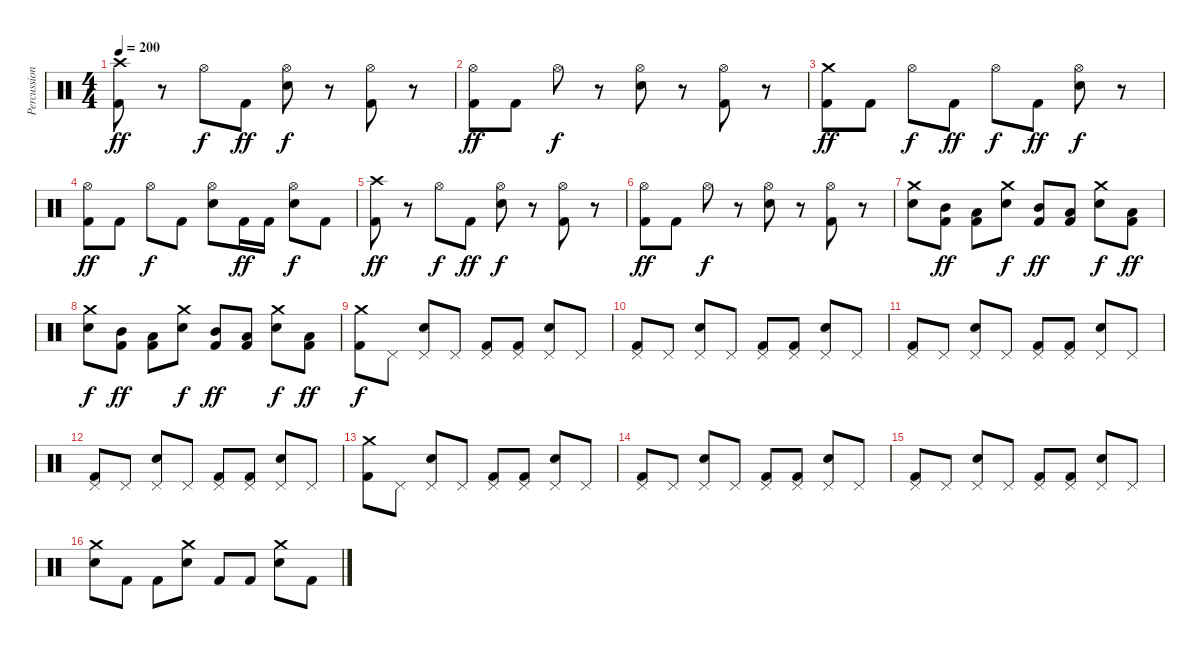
\track ("Percussion" "Percussion") {instrument percussion}
\staff {score}
\articulation defaults
\ts (4 4)
\tempo 200
\clef neutral
\ks c
("Crash high (hit)" "Kick (hit) 2").8{dy ff} r.8 "Hi-Hat (open)".8{dy f} "Kick (hit) 2".8{dy ff} ("Hi-Hat (open)" "Snare (hit) 2").8{dy f} r.8 ("Hi-Hat (open)" "Kick (hit) 2").8 r.8 |
("Hi-Hat (open)" "Kick (hit) 2").8{dy ff} "Kick (hit) 2".8 "Hi-Hat (open)".8{dy f} r.8 ("Hi-Hat (open)" "Snare (hit) 2").8 r.8 ("Hi-Hat (open)" "Kick (hit) 2").8 r.8 |
("Crash medium (hit)" "Kick (hit) 2").8{dy ff} "Kick (hit) 2".8 "Hi-Hat (open)".8{dy f} "Kick (hit) 2".8{dy ff} "Hi-Hat (open)".8{dy f} "Kick (hit) 2".8{dy ff} ("Hi-Hat (open)" "Snare (hit) 2").8{dy f} r.8 |
("Hi-Hat (open)" "Kick (hit) 2").8{dy ff} "Kick (hit) 2".8 "Hi-Hat (open)".8{dy f} "Kick (hit) 2".8 ("Hi-Hat (open)" "Snare (hit) 2").8 "Kick (hit) 2".16{dy ff} "Kick (hit) 2".16 ("Hi-Hat (open)" "Snare (hit) 2").8{dy f} "Kick (hit) 2".8 |
("Crash high (hit)" "Kick (hit) 2").8{dy ff} r.8 "Hi-Hat (open)".8{dy f} "Kick (hit) 2".8{dy ff} ("Hi-Hat (open)" "Snare (hit) 2").8{dy f} r.8 ("Hi-Hat (open)" "Kick (hit) 2").8 r.8 |
("Hi-Hat (open)" "Kick (hit) 2").8{dy ff} "Kick (hit) 2".8 "Hi-Hat (open)".8{dy f} r.8 ("Hi-Hat (open)" "Snare (hit) 2").8 r.8 ("Hi-Hat (open)" "Kick (hit) 2").8 r.8 |
("Crash medium (hit)" "Snare (hit) 2").8 ("Mid Tom (hit)" "Kick (hit) 2").8{dy ff} ("Low Tom (hit)" "Kick (hit) 2").8 ("Crash medium (hit)" "Snare (hit) 2").8{dy f} ("Mid Tom (hit)" "Kick (hit) 2").8{dy ff} ("Low Tom (hit)" "Kick (hit) 2").8 ("Crash medium (hit)" "Snare (hit) 2").8{dy f} ("Low Tom (hit)" "Kick (hit) 2").8{dy ff} |
("Crash medium (hit)" "Snare (hit) 2").8{dy f} ("Mid Tom (hit)" "Kick (hit) 2").8{dy ff} ("Low Tom (hit)" "Kick (hit) 2").8 ("Crash medium (hit)" "Snare (hit) 2").8{dy f} ("Mid Tom (hit)" "Kick (hit) 2").8{dy ff} ("Low Tom (hit)" "Kick (hit) 2").8 ("Crash medium (hit)" "Snare (hit) 2").8{dy f} ("Low Tom (hit)" "Kick (hit) 2").8{dy ff} |
("Crash medium (hit)" "Kick (hit) 2").8{dy f} "Pedal Hi-Hat (hit)".8 ("Pedal Hi-Hat (hit)" "Snare (hit) 2").8 "Pedal Hi-Hat (hit)".8 ("Pedal Hi-Hat (hit)" "Kick (hit) 2").8 ("Pedal Hi-Hat (hit)" "Kick (hit) 2").8 ("Pedal Hi-Hat (hit)" "Snare (hit) 2").8 "Pedal Hi-Hat (hit)".8 |
("Pedal Hi-Hat (hit)" "Kick (hit) 2").8 "Pedal Hi-Hat (hit)".8 ("Pedal Hi-Hat (hit)" "Snare (hit) 2").8 "Pedal Hi-Hat (hit)".8 ("Pedal Hi-Hat (hit)" "Kick (hit) 2").8 ("Pedal Hi-Hat (hit)" "Kick (hit) 2").8 ("Pedal Hi-Hat (hit)" "Snare (hit) 2").8 "Pedal Hi-Hat (hit)".8 |
("Pedal Hi-Hat (hit)" "Kick (hit) 2").8 "Pedal Hi-Hat (hit)".8 ("Pedal Hi-Hat (hit)" "Snare (hit) 2").8 "Pedal Hi-Hat (hit)".8 ("Pedal Hi-Hat (hit)" "Kick (hit) 2").8 ("Pedal Hi-Hat (hit)" "Kick (hit) 2").8 ("Pedal Hi-Hat (hit)" "Snare (hit) 2").8 "Pedal Hi-Hat (hit)".8 |
("Pedal Hi-Hat (hit)" "Kick (hit) 2").8 "Pedal Hi-Hat (hit)".8 ("Pedal Hi-Hat (hit)" "Snare (hit) 2").8 "Pedal Hi-Hat (hit)".8 ("Pedal Hi-Hat (hit)" "Kick (hit) 2").8 ("Pedal Hi-Hat (hit)" "Kick (hit) 2").8 ("Pedal Hi-Hat (hit)" "Snare (hit) 2").8 "Pedal Hi-Hat (hit)".8 |
("Crash medium (hit)" "Kick (hit) 2").8 "Pedal Hi-Hat (hit)".8 ("Pedal Hi-Hat (hit)" "Snare (hit) 2").8 "Pedal Hi-Hat (hit)".8 ("Pedal Hi-Hat (hit)" "Kick (hit) 2").8 ("Pedal Hi-Hat (hit)" "Kick (hit) 2").8 ("Pedal Hi-Hat (hit)" "Snare (hit) 2").8 "Pedal Hi-Hat (hit)".8 |
("Pedal Hi-Hat (hit)" "Kick (hit) 2").8 "Pedal Hi-Hat (hit)".8 ("Pedal Hi-Hat (hit)" "Snare (hit) 2").8 "Pedal Hi-Hat (hit)".8 ("Pedal Hi-Hat (hit)" "Kick (hit) 2").8 ("Pedal Hi-Hat (hit)" "Kick (hit) 2").8 ("Pedal Hi-Hat (hit)" "Snare (hit) 2").8 "Pedal Hi-Hat (hit)".8 |
("Pedal Hi-Hat (hit)" "Kick (hit) 2").8 "Pedal Hi-Hat (hit)".8 ("Pedal Hi-Hat (hit)" "Snare (hit) 2").8 "Pedal Hi-Hat (hit)".8 ("Pedal Hi-Hat (hit)" "Kick (hit) 2").8 ("Pedal Hi-Hat (hit)" "Kick (hit) 2").8 ("Pedal Hi-Hat (hit)" "Snare (hit) 2").8 "Pedal Hi-Hat (hit)".8 |
("Crash medium (hit)" "Snare (hit) 2").8 "Kick (hit) 2".8 "Kick (hit) 2".8 ("Crash medium (hit)" "Snare (hit) 2").8 "Kick (hit) 2".8 "Kick (hit) 2".8 ("Crash medium (hit)" "Snare (hit) 2").8 "Kick (hit) 2".8
